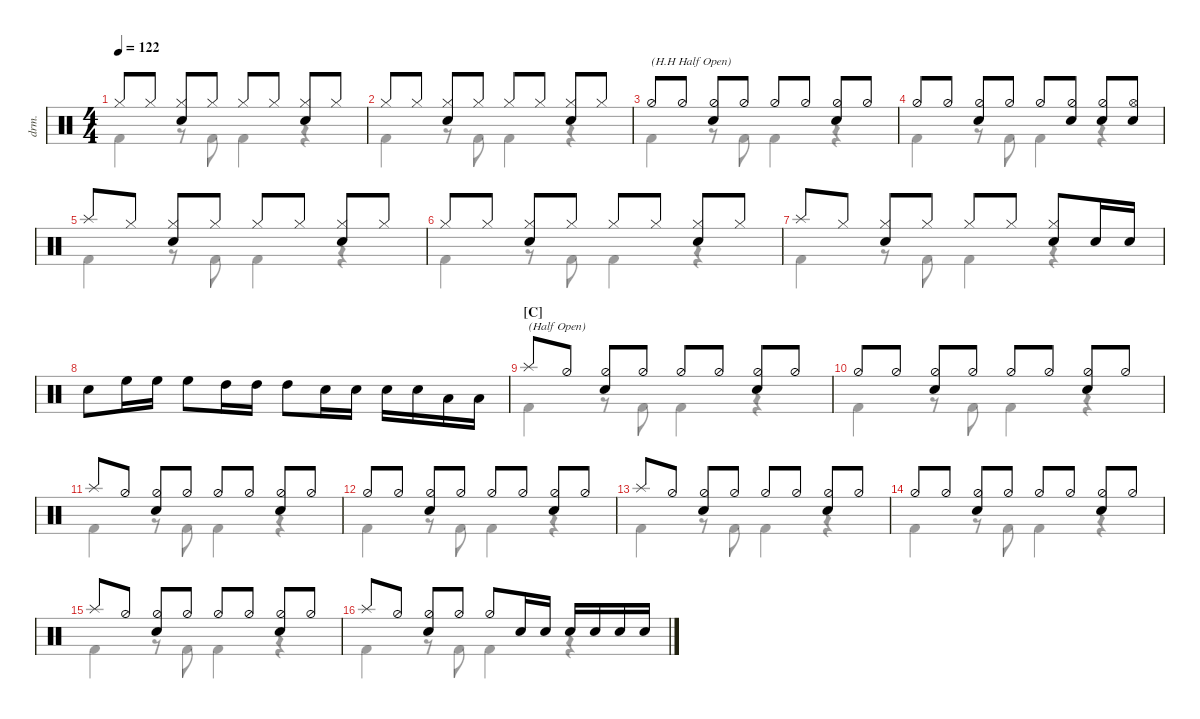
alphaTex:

\defaultSystemsLayout 4
\hideDynamics
\bracketExtendMode nobrackets
\track ("Drumkit" "drm.") {defaultSystemsLayout 4 instrument percussion}
\staff {score}
\articulation defaults
\voice
\ts (4 4)
\tempo 122
\clef neutral
\ks c "Hi-Hat (closed)".8{dy mf beam Up} "Hi-Hat (closed)".8{beam Up}
("Hi-Hat (closed)" "Snare (hit) 2").8{beam Up} "Hi-Hat (closed)".8{beam Up} "Hi-Hat (closed)".8{beam Up} "Hi-Hat (closed)".8{beam Up} ("Hi-Hat (closed)" "Snare (hit) 2").8{beam Up} "Hi-Hat (closed)".8{beam Up} |
"Hi-Hat (closed)".8{beam Up} "Hi-Hat (closed)".8{beam Up} ("Hi-Hat (closed)" "Snare (hit) 2").8{beam Up} "Hi-Hat (closed)".8{beam Up} "Hi-Hat (closed)".8{beam Up} "Hi-Hat (closed)".8{beam Up} ("Hi-Hat (closed)" "Snare (hit) 2").8{beam Up} "Hi-Hat (closed)".8{beam Up} |
"Hi-Hat (half)".8{txt "(H.H Half Open)" beam Up} "Hi-Hat (half)".8{beam Up} ("Hi-Hat (half)" "Snare (hit) 2").8{beam Up} "Hi-Hat (half)".8{beam Up} "Hi-Hat (half)".8{beam Up} "Hi-Hat (half)".8{beam Up} ("Hi-Hat (half)" "Snare (hit) 2").8{beam Up} "Hi-Hat (half)".8{beam Up} |
"Hi-Hat (half)".8{beam Up} "Hi-Hat (half)".8{beam Up} ("Hi-Hat (half)" "Snare (hit) 2").8{beam Up} "Hi-Hat (half)".8{beam Up} "Hi-Hat (half)".8{beam Up} ("Hi-Hat (half)" "Snare (hit) 2").8{beam Up} ("Hi-Hat (half)" "Snare (hit) 2").8{beam Up} ("Hi-Hat (open)" "Snare (hit) 2").8{beam Up} |
"Splash (hit)".8{beam Up} "Hi-Hat (closed)".8{beam Up} ("Hi-Hat (closed)" "Snare (hit) 2").8{beam Up} "Hi-Hat (closed)".8{beam Up} "Hi-Hat (closed)".8{beam Up} "Hi-Hat (closed)".8{beam Up} ("Hi-Hat (closed)" "Snare (hit) 2").8{beam Up} "Hi-Hat (closed)".8{beam Up} |
"Hi-Hat (closed)".8{beam Up} "Hi-Hat (closed)".8{beam Up} ("Hi-Hat (closed)" "Snare (hit) 2").8{beam Up} "Hi-Hat (closed)".8{beam Up} "Hi-Hat (closed)".8{beam Up} "Hi-Hat (closed)".8{beam Up} ("Hi-Hat (closed)" "Snare (hit) 2").8{beam Up} "Hi-Hat (closed)".8{beam Up} |
"Splash (hit)".8{beam Up} "Hi-Hat (closed)".8{beam Up} ("Hi-Hat (closed)" "Snare (hit) 2").8{beam Up} "Hi-Hat (closed)".8{beam Up} "Hi-Hat (closed)".8{beam Up} "Hi-Hat (closed)".8{beam Up} ("Hi-Hat (closed)" "Snare (hit) 2").8{beam Up} "Snare (hit) 2".16{beam Up} "Snare (hit) 2".16{beam Up} |
"Snare (hit) 2".8{beam Down} "High Floor Tom (hit)".16{beam Down} "High Floor Tom (hit)".16{beam Down} "High Floor Tom (hit)".8{beam Down} "High Tom (hit)".16{beam Down} "High Tom (hit)".16{beam Down} "High Tom (hit)".8{beam Down} "Snare (hit) 2".16{beam Down} "Snare (hit) 2".16{beam Down} "Snare (hit) 2".16{beam Down} "Snare (hit) 2".16{beam Down} "Low Tom (hit)".16{beam Down} "Low Tom (hit)".16{beam Down} |
\section ("C" "")
"Splash (hit)".8{txt "(Half Open)" beam Up} "Hi-Hat (half)".8{beam Up} ("Hi-Hat (half)" "Snare (hit) 2").8{beam Up} "Hi-Hat (half)".8{beam Up} "Hi-Hat (half)".8{beam Up} "Hi-Hat (half)".8{beam Up} ("Hi-Hat (half)" "Snare (hit) 2").8{beam Up} "Hi-Hat (half)".8{beam Up} |
"Hi-Hat (half)".8{beam Up} "Hi-Hat (half)".8{beam Up} ("Hi-Hat (half)" "Snare (hit) 2").8{beam Up} "Hi-Hat (half)".8{beam Up} "Hi-Hat (half)".8{beam Up} "Hi-Hat (half)".8{beam Up} ("Hi-Hat (half)" "Snare (hit) 2").8{beam Up} "Hi-Hat (half)".8{beam Up} |
"Splash (hit)".8{beam Up} "Hi-Hat (half)".8{beam Up} ("Hi-Hat (half)" "Snare (hit) 2").8{beam Up} "Hi-Hat (half)".8{beam Up} "Hi-Hat (half)".8{beam Up} "Hi-Hat (half)".8{beam Up} ("Hi-Hat (half)" "Snare (hit) 2").8{beam Up} "Hi-Hat (half)".8{beam Up} |
"Hi-Hat (half)".8{beam Up} "Hi-Hat (half)".8{beam Up} ("Hi-Hat (half)" "Snare (hit) 2").8{beam Up} "Hi-Hat (half)".8{beam Up} "Hi-Hat (half)".8{beam Up} "Hi-Hat (half)".8{beam Up} ("Hi-Hat (half)" "Snare (hit) 2").8{beam Up} "Hi-Hat (half)".8{beam Up} |
"Splash (hit)".8{beam Up} "Hi-Hat (half)".8{beam Up} ("Hi-Hat (half)" "Snare (hit) 2").8{beam Up} "Hi-Hat (half)".8{beam Up} "Hi-Hat (half)".8{beam Up} "Hi-Hat (half)".8{beam Up} ("Hi-Hat (half)" "Snare (hit) 2").8{beam Up} "Hi-Hat (half)".8{beam Up} |
"Hi-Hat (half)".8{beam Up} "Hi-Hat (half)".8{beam Up} ("Hi-Hat (half)" "Snare (hit) 2").8{beam Up} "Hi-Hat (half)".8{beam Up} "Hi-Hat (half)".8{beam Up} "Hi-Hat (half)".8{beam Up} ("Hi-Hat (half)" "Snare (hit) 2").8{beam Up} "Hi-Hat (half)".8{beam Up} |
"Splash (hit)".8{beam Up} "Hi-Hat (half)".8{beam Up} ("Hi-Hat (half)" "Snare (hit) 2").8{beam Up} "Hi-Hat (half)".8{beam Up} "Hi-Hat (half)".8{beam Up} "Hi-Hat (half)".8{beam Up} ("Hi-Hat (half)" "Snare (hit) 2").8{beam Up} "Hi-Hat (half)".8{beam Up} |
"Splash (hit)".8{beam Up} "Hi-Hat (half)".8{beam Up} ("Hi-Hat (half)" "Snare (hit) 2").8{beam Up} "Hi-Hat (half)".8{beam Up} "Hi-Hat (half)".8{beam Up} "Snare (hit) 2".16{beam Up} "Snare (hit) 2".16{beam Up} "Snare (hit) 2".16{beam Up} "Snare (hit) 2".16{beam Up} "Snare (hit) 2".16{beam Up} "Snare (hit) 2".16{beam Up}
\voice
\clef neutral
\ottava regular
\simile none
\ks c
|
|
|
|
|
|
|
|
|
|
|
|
|
|
|
\voice
\clef neutral
\ottava regular
\simile none
\ks c "Kick (hit) 2".4{dy mf beam Down}
r.8{beam Down} "Kick (hit) 2".8{beam Down} "Kick (hit) 2".4{beam Down} r.4{beam Down} |
"Kick (hit) 2".4{beam Down} r.8{beam Down} "Kick (hit) 2".8{beam Down} "Kick (hit) 2".4{beam Down} r.4{beam Down} |
"Kick (hit) 2".4{beam Down} r.8{beam Down} "Kick (hit) 2".8{beam Down} "Kick (hit) 2".4{beam Down} r.4{beam Down} |
"Kick (hit) 2".4{beam Down} r.8{beam Down} "Kick (hit) 2".8{beam Down} "Kick (hit) 2".4{beam Down} r.4{beam Down} |
"Kick (hit) 2".4{beam Down} r.8{beam Down} "Kick (hit) 2".8{beam Down} "Kick (hit) 2".4{beam Down} r.4{beam Down} |
"Kick (hit) 2".4{beam Down} r.8{beam Down} "Kick (hit) 2".8{beam Down} "Kick (hit) 2".4{beam Down} r.4{beam Down} |
"Kick (hit) 2".4{beam Down} r.8{beam Down} "Kick (hit) 2".8{beam Down} "Kick (hit) 2".4{beam Down} r.4{beam Down} |
|
"Kick (hit) 2".4{beam Down} r.8{beam Down} "Kick (hit) 2".8{beam Down} "Kick (hit) 2".4{beam Down} r.4{beam Down} |
"Kick (hit) 2".4{beam Down} r.8{beam Down} "Kick (hit) 2".8{beam Down} "Kick (hit) 2".4{beam Down} r.4{beam Down} |
"Kick (hit) 2".4{beam Down} r.8{beam Down} "Kick (hit) 2".8{beam Down} "Kick (hit) 2".4{beam Down} r.4{beam Down} |
"Kick (hit) 2".4{beam Down} r.8{beam Down} "Kick (hit) 2".8{beam Down} "Kick (hit) 2".4{beam Down} r.4{beam Down} |
"Kick (hit) 2".4{beam Down} r.8{beam Down} "Kick (hit) 2".8{beam Down} "Kick (hit) 2".4{beam Down} r.4{beam Down} |
"Kick (hit) 2".4{beam Down} r.8{beam Down} "Kick (hit) 2".8{beam Down} "Kick (hit) 2".4{beam Down} r.4{beam Down} |
"Kick (hit) 2".4{beam Down} r.8{beam Down} "Kick (hit) 2".8{beam Down} "Kick (hit) 2".4{beam Down} r.4{beam Down} |
"Kick (hit) 2".4{beam Down} r.8{beam Down} "Kick (hit) 2".8{beam Down} "Kick (hit) 2".4{beam Down} r.4{beam Down}
